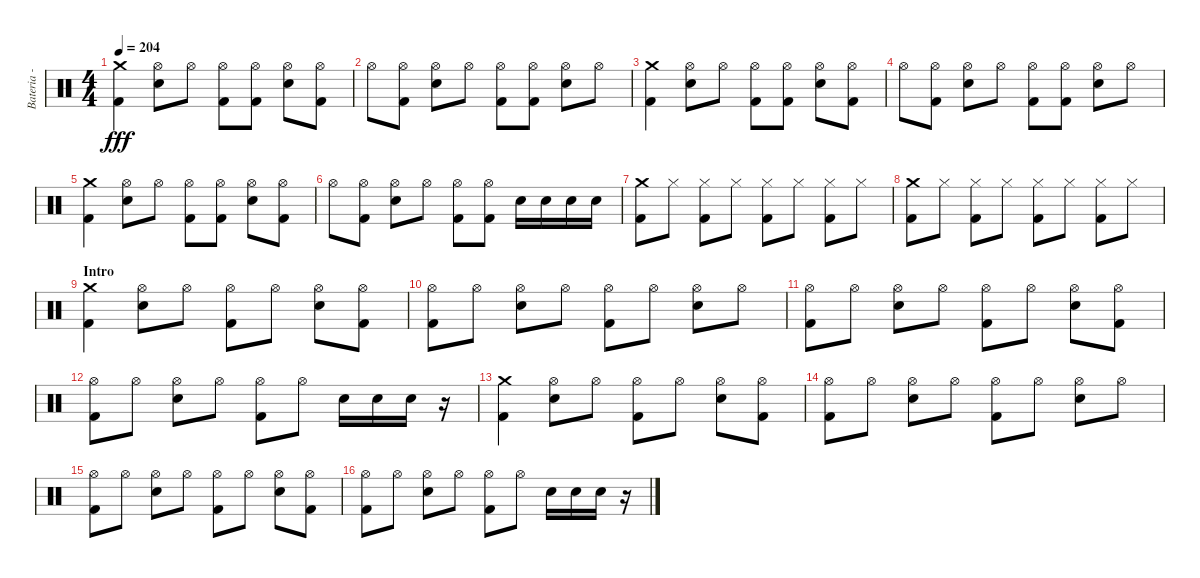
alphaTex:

\track ("Bateria - Larzon" "Bateria - ") {instrument percussion}
\staff {score}
\articulation defaults
\ts (4 4)
\tempo 204
\clef neutral
\ks c
("Kick (hit) 2" "Crash medium (hit)").4{dy fff} ("Hi-Hat (open)" "Electric Snare (hit)").8 "Hi-Hat (open)".8 ("Hi-Hat (open)" "Kick (hit) 2").8 ("Hi-Hat (open)" "Kick (hit) 2").8 ("Hi-Hat (open)" "Electric Snare (hit)").8 ("Hi-Hat (open)" "Kick (hit) 2").8 |
"Hi-Hat (open)".8 ("Hi-Hat (open)" "Kick (hit) 2").8 ("Hi-Hat (open)" "Electric Snare (hit)").8 "Hi-Hat (open)".8 ("Hi-Hat (open)" "Kick (hit) 2").8 ("Hi-Hat (open)" "Kick (hit) 2").8 ("Hi-Hat (open)" "Electric Snare (hit)").8 "Hi-Hat (open)".8 |
("Crash medium (hit)" "Kick (hit) 2").4 ("Hi-Hat (open)" "Electric Snare (hit)").8 "Hi-Hat (open)".8 ("Hi-Hat (open)" "Kick (hit) 2").8 ("Hi-Hat (open)" "Kick (hit) 2").8 ("Hi-Hat (open)" "Electric Snare (hit)").8 ("Hi-Hat (open)" "Kick (hit) 2").8 |
"Hi-Hat (open)".8 ("Hi-Hat (open)" "Kick (hit) 2").8 ("Hi-Hat (open)" "Electric Snare (hit)").8 "Hi-Hat (open)".8 ("Hi-Hat (open)" "Kick (hit) 2").8 ("Hi-Hat (open)" "Kick (hit) 2").8 ("Electric Snare (hit)" "Hi-Hat (open)").8 "Hi-Hat (open)".8 |
("Crash medium (hit)" "Kick (hit) 2").4 ("Hi-Hat (open)" "Electric Snare (hit)").8 "Hi-Hat (open)".8 ("Hi-Hat (open)" "Kick (hit) 2").8 ("Hi-Hat (open)" "Kick (hit) 2").8 ("Hi-Hat (open)" "Electric Snare (hit)").8 ("Hi-Hat (open)" "Kick (hit) 2").8 |
"Hi-Hat (open)".8 ("Hi-Hat (open)" "Kick (hit) 2").8 ("Hi-Hat (open)" "Electric Snare (hit)").8 "Hi-Hat (open)".8 ("Hi-Hat (open)" "Kick (hit) 2").8 ("Hi-Hat (open)" "Kick (hit) 2").8 "Electric Snare (hit)".16 "Electric Snare (hit)".16 "Electric Snare (hit)".16 "Electric Snare (hit)".16 |
("Kick (hit) 2" "Crash medium (hit)").8 "Hi-Hat (closed)".8 ("Kick (hit) 2" "Hi-Hat (closed)").8 "Hi-Hat (closed)".8 ("Kick (hit) 2" "Hi-Hat (closed)").8 "Hi-Hat (closed)".8 ("Kick (hit) 2" "Hi-Hat (closed)").8 "Hi-Hat (closed)".8 |
("Kick (hit) 2" "Crash medium (hit)").8 "Hi-Hat (closed)".8 ("Kick (hit) 2" "Hi-Hat (closed)").8 "Hi-Hat (closed)".8 ("Kick (hit) 2" "Hi-Hat (closed)").8 "Hi-Hat (closed)".8 ("Kick (hit) 2" "Hi-Hat (closed)").8 "Hi-Hat (closed)".8 |
\section ("" "Intro")
("Crash medium (hit)" "Kick (hit) 2").4 ("Hi-Hat (open)" "Electric Snare (hit)").8 "Hi-Hat (open)".8 ("Kick (hit) 2" "Hi-Hat (open)").8 "Hi-Hat (open)".8 ("Electric Snare (hit)" "Hi-Hat (open)").8 ("Kick (hit) 2" "Hi-Hat (open)").8 |
("Kick (hit) 2" "Hi-Hat (open)").8 "Hi-Hat (open)".8 ("Electric Snare (hit)" "Hi-Hat (open)").8 "Hi-Hat (open)".8 ("Kick (hit) 2" "Hi-Hat (open)").8 "Hi-Hat (open)".8 ("Electric Snare (hit)" "Hi-Hat (open)").8 "Hi-Hat (open)".8 |
("Kick (hit) 2" "Hi-Hat (open)").8 "Hi-Hat (open)".8 ("Electric Snare (hit)" "Hi-Hat (open)").8 "Hi-Hat (open)".8 ("Kick (hit) 2" "Hi-Hat (open)").8 "Hi-Hat (open)".8 ("Electric Snare (hit)" "Hi-Hat (open)").8 ("Kick (hit) 2" "Hi-Hat (open)").8 |
("Kick (hit) 2" "Hi-Hat (open)").8 "Hi-Hat (open)".8 ("Electric Snare (hit)" "Hi-Hat (open)").8 "Hi-Hat (open)".8 ("Kick (hit) 2" "Hi-Hat (open)").8 "Hi-Hat (open)".8 "Electric Snare (hit)".16 "Electric Snare (hit)".16 "Electric Snare (hit)".16 r.16 |
("Crash medium (hit)" "Kick (hit) 2").4 ("Hi-Hat (open)" "Electric Snare (hit)").8 "Hi-Hat (open)".8 ("Kick (hit) 2" "Hi-Hat (open)").8 "Hi-Hat (open)".8 ("Electric Snare (hit)" "Hi-Hat (open)").8 ("Kick (hit) 2" "Hi-Hat (open)").8 |
("Kick (hit) 2" "Hi-Hat (open)").8 "Hi-Hat (open)".8 ("Electric Snare (hit)" "Hi-Hat (open)").8 "Hi-Hat (open)".8 ("Kick (hit) 2" "Hi-Hat (open)").8 "Hi-Hat (open)".8 ("Electric Snare (hit)" "Hi-Hat (open)").8 "Hi-Hat (open)".8 |
("Kick (hit) 2" "Hi-Hat (open)").8 "Hi-Hat (open)".8 ("Electric Snare (hit)" "Hi-Hat (open)").8 "Hi-Hat (open)".8 ("Kick (hit) 2" "Hi-Hat (open)").8 "Hi-Hat (open)".8 ("Electric Snare (hit)" "Hi-Hat (open)").8 ("Kick (hit) 2" "Hi-Hat (open)").8 |
("Kick (hit) 2" "Hi-Hat (open)").8 "Hi-Hat (open)".8 ("Electric Snare (hit)" "Hi-Hat (open)").8 "Hi-Hat (open)".8 ("Kick (hit) 2" "Hi-Hat (open)").8 "Hi-Hat (open)".8 "Electric Snare (hit)".16 "Electric Snare (hit)".16 "Electric Snare (hit)".16 r.16
